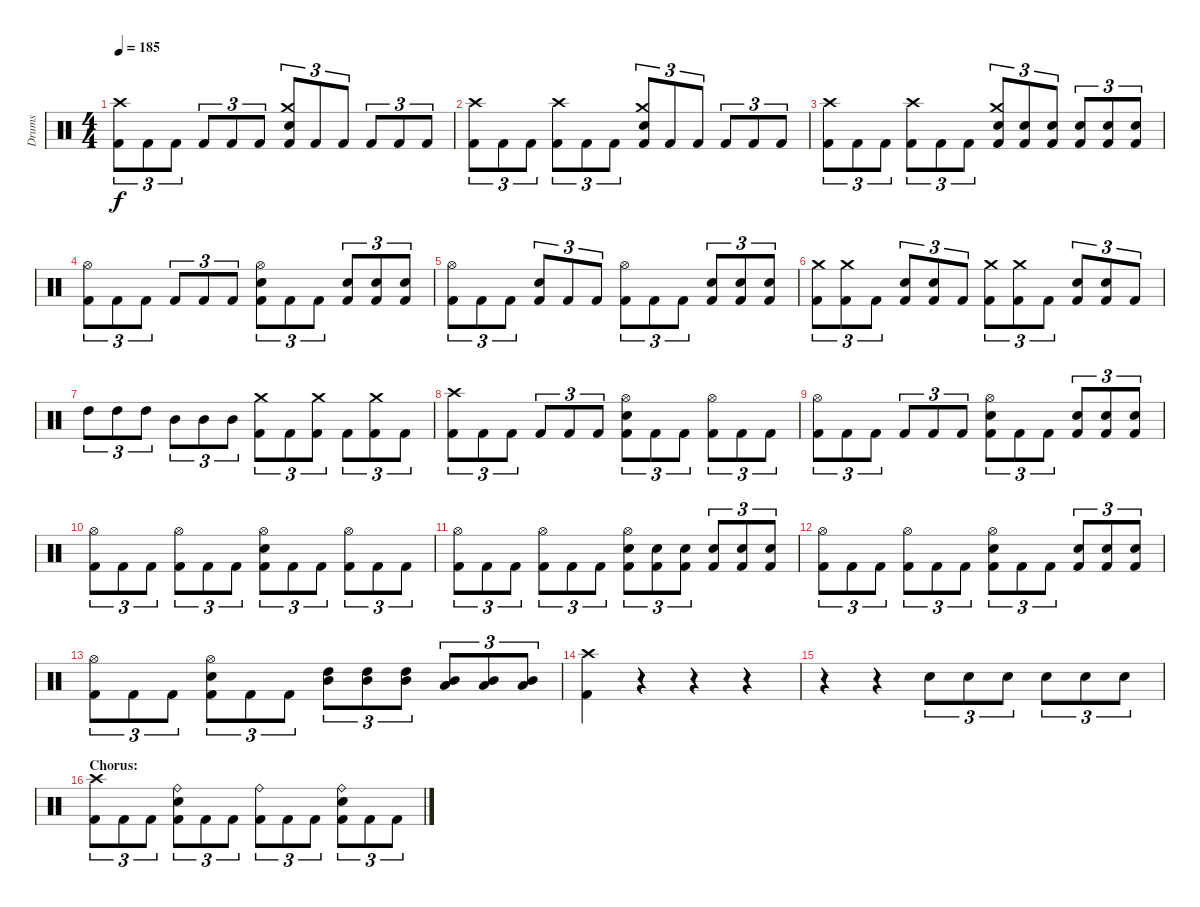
\track ("Drums" "Drums") {instrument percussion}
\staff {score}
\articulation defaults
\ts (4 4)
\tempo 185
\clef neutral
\ks c
("Crash high (hit)" "Kick (hit) 2").8{tu (3 2) dy f} "Kick (hit) 2".8{tu (3 2)} "Kick (hit) 2".8{tu (3 2)} "Kick (hit) 2".8{tu (3 2)} "Kick (hit) 2".8{tu (3 2)} "Kick (hit) 2".8{tu (3 2)} ("Crash medium (hit)" "Electric Snare (hit)" "Kick (hit) 2").8{tu (3 2)} "Kick (hit) 2".8{tu (3 2)} "Kick (hit) 2".8{tu (3 2)} "Kick (hit) 2".8{tu (3 2)} "Kick (hit) 2".8{tu (3 2)} "Kick (hit) 2".8{tu (3 2)} |
("Crash high (hit)" "Kick (hit) 2").8{tu (3 2)} "Kick (hit) 2".8{tu (3 2)} "Kick (hit) 2".8{tu (3 2)} ("Crash high (hit)" "Kick (hit) 2").8{tu (3 2)} "Kick (hit) 2".8{tu (3 2)} "Kick (hit) 2".8{tu (3 2)} ("Crash medium (hit)" "Electric Snare (hit)" "Kick (hit) 2").8{tu (3 2)} "Kick (hit) 2".8{tu (3 2)} "Kick (hit) 2".8{tu (3 2)} "Kick (hit) 2".8{tu (3 2)} "Kick (hit) 2".8{tu (3 2)} "Kick (hit) 2".8{tu (3 2)} |
("Crash high (hit)" "Kick (hit) 2").8{tu (3 2)} "Kick (hit) 2".8{tu (3 2)} "Kick (hit) 2".8{tu (3 2)} ("Crash high (hit)" "Kick (hit) 2").8{tu (3 2)} "Kick (hit) 2".8{tu (3 2)} "Kick (hit) 2".8{tu (3 2)} ("Crash medium (hit)" "Electric Snare (hit)" "Kick (hit) 2").8{tu (3 2)} ("Electric Snare (hit)" "Kick (hit) 2").8{tu (3 2)} ("Electric Snare (hit)" "Kick (hit) 2").8{tu (3 2)} ("Electric Snare (hit)" "Kick (hit) 2").8{tu (3 2)} ("Electric Snare (hit)" "Kick (hit) 2").8{tu (3 2)} ("Electric Snare (hit)" "Kick (hit) 2").8{tu (3 2)} |
("Hi-Hat (open)" "Kick (hit) 2").8{tu (3 2)} "Kick (hit) 2".8{tu (3 2)} "Kick (hit) 2".8{tu (3 2)} "Kick (hit) 2".8{tu (3 2)} "Kick (hit) 2".8{tu (3 2)} "Kick (hit) 2".8{tu (3 2)} ("Hi-Hat (open)" "Electric Snare (hit)" "Kick (hit) 2").8{tu (3 2)} "Kick (hit) 2".8{tu (3 2)} "Kick (hit) 2".8{tu (3 2)} ("Electric Snare (hit)" "Kick (hit) 2").8{tu (3 2)} ("Electric Snare (hit)" "Kick (hit) 2").8{tu (3 2)} ("Electric Snare (hit)" "Kick (hit) 2").8{tu (3 2)} |
("Hi-Hat (open)" "Kick (hit) 2").8{tu (3 2)} "Kick (hit) 2".8{tu (3 2)} "Kick (hit) 2".8{tu (3 2)} ("Electric Snare (hit)" "Kick (hit) 2").8{tu (3 2)} "Kick (hit) 2".8{tu (3 2)} "Kick (hit) 2".8{tu (3 2)} ("Hi-Hat (open)" "Kick (hit) 2").8{tu (3 2)} "Kick (hit) 2".8{tu (3 2)} "Kick (hit) 2".8{tu (3 2)} ("Electric Snare (hit)" "Kick (hit) 2").8{tu (3 2)} ("Electric Snare (hit)" "Kick (hit) 2").8{tu (3 2)} ("Electric Snare (hit)" "Kick (hit) 2").8{tu (3 2)} |
("Crash medium (hit)" "Kick (hit) 2").8{tu (3 2)} ("Crash medium (hit)" "Kick (hit) 2").8{tu (3 2)} "Kick (hit) 2".8{tu (3 2)} ("Electric Snare (hit)" "Kick (hit) 2").8{tu (3 2)} ("Electric Snare (hit)" "Kick (hit) 2").8{tu (3 2)} "Kick (hit) 2".8{tu (3 2)} ("Crash medium (hit)" "Kick (hit) 2").8{tu (3 2)} ("Crash medium (hit)" "Kick (hit) 2").8{tu (3 2)} "Kick (hit) 2".8{tu (3 2)} ("Electric Snare (hit)" "Kick (hit) 2").8{tu (3 2)} ("Electric Snare (hit)" "Kick (hit) 2").8{tu (3 2)} "Kick (hit) 2".8{tu (3 2)} |
"High Tom (hit)".8{tu (3 2)} "High Tom (hit)".8{tu (3 2)} "High Tom (hit)".8{tu (3 2)} "Mid Tom (hit)".8{tu (3 2)} "Mid Tom (hit)".8{tu (3 2)} "Mid Tom (hit)".8{tu (3 2)} ("Crash medium (hit)" "Kick (hit) 2").8{tu (3 2)} "Kick (hit) 2".8{tu (3 2)} ("Crash medium (hit)" "Kick (hit) 2").8{tu (3 2)} "Kick (hit) 2".8{tu (3 2)} ("Crash medium (hit)" "Kick (hit) 2").8{tu (3 2)} "Kick (hit) 2".8{tu (3 2)} |
("Crash high (hit)" "Kick (hit) 2").8{tu (3 2)} "Kick (hit) 2".8{tu (3 2)} "Kick (hit) 2".8{tu (3 2)} "Kick (hit) 2".8{tu (3 2)} "Kick (hit) 2".8{tu (3 2)} "Kick (hit) 2".8{tu (3 2)} ("Hi-Hat (open)" "Electric Snare (hit)" "Kick (hit) 2").8{tu (3 2)} "Kick (hit) 2".8{tu (3 2)} "Kick (hit) 2".8{tu (3 2)} ("Hi-Hat (open)" "Kick (hit) 2").8{tu (3 2)} "Kick (hit) 2".8{tu (3 2)} "Kick (hit) 2".8{tu (3 2)} |
("Hi-Hat (open)" "Kick (hit) 2").8{tu (3 2)} "Kick (hit) 2".8{tu (3 2)} "Kick (hit) 2".8{tu (3 2)} "Kick (hit) 2".8{tu (3 2)} "Kick (hit) 2".8{tu (3 2)} "Kick (hit) 2".8{tu (3 2)} ("Hi-Hat (open)" "Electric Snare (hit)" "Kick (hit) 2").8{tu (3 2)} "Kick (hit) 2".8{tu (3 2)} "Kick (hit) 2".8{tu (3 2)} ("Electric Snare (hit)" "Kick (hit) 2").8{tu (3 2)} ("Electric Snare (hit)" "Kick (hit) 2").8{tu (3 2)} ("Electric Snare (hit)" "Kick (hit) 2").8{tu (3 2)} |
("Hi-Hat (open)" "Kick (hit) 2").8{tu (3 2)} "Kick (hit) 2".8{tu (3 2)} "Kick (hit) 2".8{tu (3 2)} ("Hi-Hat (open)" "Kick (hit) 2").8{tu (3 2)} "Kick (hit) 2".8{tu (3 2)} "Kick (hit) 2".8{tu (3 2)} ("Hi-Hat (open)" "Electric Snare (hit)" "Kick (hit) 2").8{tu (3 2)} "Kick (hit) 2".8{tu (3 2)} "Kick (hit) 2".8{tu (3 2)} ("Hi-Hat (open)" "Kick (hit) 2").8{tu (3 2)} "Kick (hit) 2".8{tu (3 2)} "Kick (hit) 2".8{tu (3 2)} |
("Hi-Hat (open)" "Kick (hit) 2").8{tu (3 2)} "Kick (hit) 2".8{tu (3 2)} "Kick (hit) 2".8{tu (3 2)} ("Hi-Hat (open)" "Kick (hit) 2").8{tu (3 2)} "Kick (hit) 2".8{tu (3 2)} "Kick (hit) 2".8{tu (3 2)} ("Hi-Hat (open)" "Electric Snare (hit)" "Kick (hit) 2").8{tu (3 2)} ("Electric Snare (hit)" "Kick (hit) 2").8{tu (3 2)} ("Electric Snare (hit)" "Kick (hit) 2").8{tu (3 2)} ("Electric Snare (hit)" "Kick (hit) 2").8{tu (3 2)} ("Electric Snare (hit)" "Kick (hit) 2").8{tu (3 2)} ("Electric Snare (hit)" "Kick (hit) 2").8{tu (3 2)} |
("Hi-Hat (open)" "Kick (hit) 2").8{tu (3 2)} "Kick (hit) 2".8{tu (3 2)} "Kick (hit) 2".8{tu (3 2)} ("Hi-Hat (open)" "Kick (hit) 2").8{tu (3 2)} "Kick (hit) 2".8{tu (3 2)} "Kick (hit) 2".8{tu (3 2)} ("Hi-Hat (open)" "Electric Snare (hit)" "Kick (hit) 2").8{tu (3 2)} "Kick (hit) 2".8{tu (3 2)} "Kick (hit) 2".8{tu (3 2)} ("Electric Snare (hit)" "Kick (hit) 2").8{tu (3 2)} ("Electric Snare (hit)" "Kick (hit) 2").8{tu (3 2)} ("Electric Snare (hit)" "Kick (hit) 2").8{tu (3 2)} |
("Hi-Hat (open)" "Kick (hit) 2").8{tu (3 2)} "Kick (hit) 2".8{tu (3 2)} "Kick (hit) 2".8{tu (3 2)} ("Hi-Hat (open)" "Electric Snare (hit)" "Kick (hit) 2").8{tu (3 2)} "Kick (hit) 2".8{tu (3 2)} "Kick (hit) 2".8{tu (3 2)} ("High Tom (hit)" "Mid Tom (hit)").8{tu (3 2)} ("High Tom (hit)" "Mid Tom (hit)").8{tu (3 2)} ("High Tom (hit)" "Mid Tom (hit)").8{tu (3 2)} ("Mid Tom (hit)" "Low Tom (hit)").8{tu (3 2)} ("Mid Tom (hit)" "Low Tom (hit)").8{tu (3 2)} ("Mid Tom (hit)" "Low Tom (hit)").8{tu (3 2)} |
("Crash high (hit)" "Kick (hit) 2").4 r.4 r.4 r.4 |
r.4 r.4 "Electric Snare (hit)".8{tu (3 2)} "Electric Snare (hit)".8{tu (3 2)} "Electric Snare (hit)".8{tu (3 2)} "Electric Snare (hit)".8{tu (3 2)} "Electric Snare (hit)".8{tu (3 2)} "Electric Snare (hit)".8{tu (3 2)} |
\section ("" "Chorus:")
("Crash high (hit)" "Kick (hit) 2").8{tu (3 2)} "Kick (hit) 2".8{tu (3 2)} "Kick (hit) 2".8{tu (3 2)} ("Ride (bell)" "Electric Snare (hit)" "Kick (hit) 2").8{tu (3 2)} "Kick (hit) 2".8{tu (3 2)} "Kick (hit) 2".8{tu (3 2)} ("Ride (bell)" "Kick (hit) 2").8{tu (3 2)} "Kick (hit) 2".8{tu (3 2)} "Kick (hit) 2".8{tu (3 2)} ("Ride (bell)" "Electric Snare (hit)" "Kick (hit) 2").8{tu (3 2)} "Kick (hit) 2".8{tu (3 2)} "Kick (hit) 2".8{tu (3 2)}
